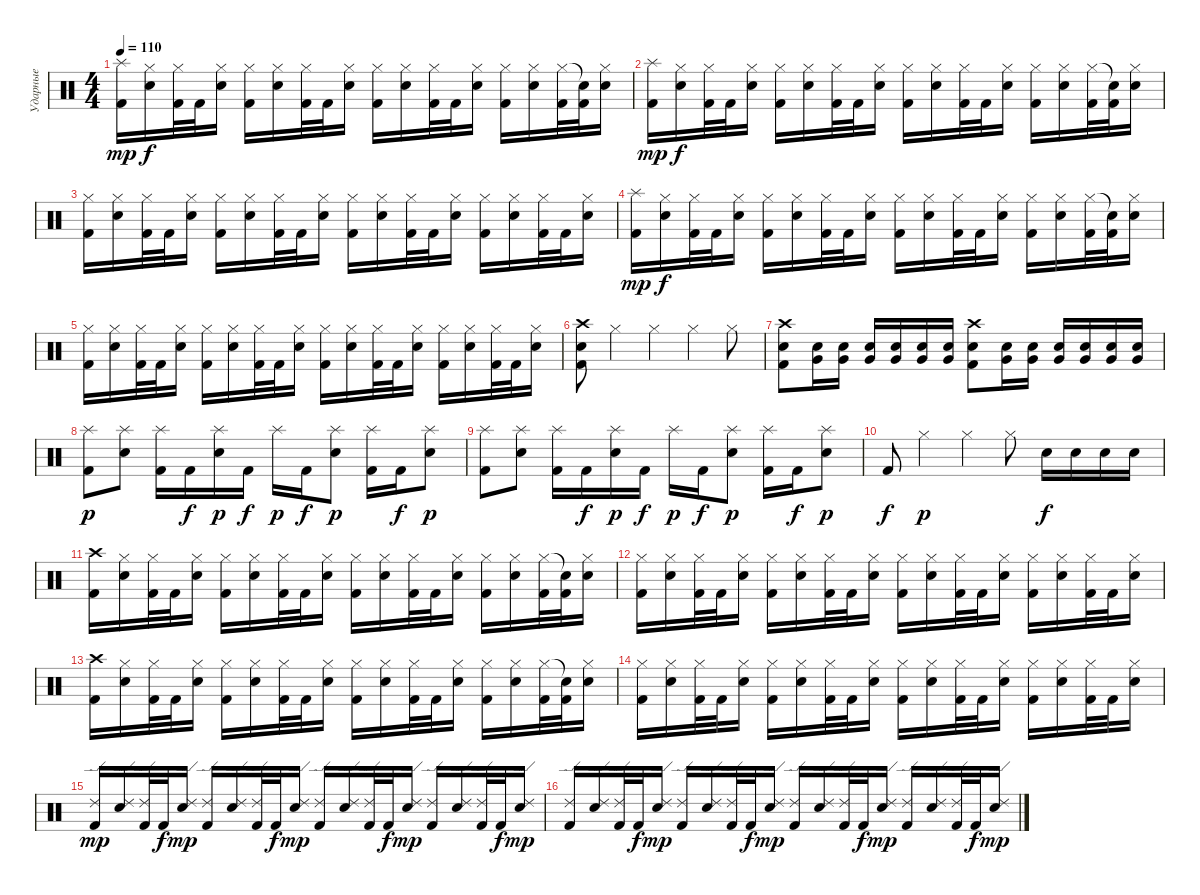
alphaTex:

\track ("Ударные" "Ударные") {instrument percussion}
\staff {score}
\articulation defaults
\ts (4 4)
\tempo 110
\clef neutral
\ks c
("Splash (hit)" "Kick (hit) 2").16{dy mp} ("Hi-Hat (closed)" "Electric Snare (hit)").16{dy f} ("Hi-Hat (closed)" "Kick (hit) 2").32 "Kick (hit) 2".32 ("Hi-Hat (closed)" "Electric Snare (hit)").16 ("Hi-Hat (closed)" "Kick (hit) 2").16 ("Hi-Hat (closed)" "Electric Snare (hit)").16 ("Hi-Hat (closed)" "Kick (hit) 2").32 "Kick (hit) 2".32 ("Hi-Hat (closed)" "Electric Snare (hit)").16 ("Hi-Hat (closed)" "Kick (hit) 2").16 ("Hi-Hat (closed)" "Electric Snare (hit)").16 ("Hi-Hat (closed)" "Kick (hit) 2").32 "Kick (hit) 2".32 ("Hi-Hat (closed)" "Electric Snare (hit)").16 ("Hi-Hat (closed)" "Kick (hit) 2").16 ("Hi-Hat (closed)" "Electric Snare (hit)").16 ("Hi-Hat (closed)" "Kick (hit) 2").32 ("Snare (hit)"{t} "Kick (hit) 2").32 ("Hi-Hat (closed)" "Electric Snare (hit)").16 |
("Splash (hit)" "Kick (hit) 2").16{dy mp} ("Hi-Hat (closed)" "Electric Snare (hit)").16{dy f} ("Hi-Hat (closed)" "Kick (hit) 2").32 "Kick (hit) 2".32 ("Hi-Hat (closed)" "Electric Snare (hit)").16 ("Hi-Hat (closed)" "Kick (hit) 2").16 ("Hi-Hat (closed)" "Electric Snare (hit)").16 ("Hi-Hat (closed)" "Kick (hit) 2").32 "Kick (hit) 2".32 ("Hi-Hat (closed)" "Electric Snare (hit)").16 ("Hi-Hat (closed)" "Kick (hit) 2").16 ("Hi-Hat (closed)" "Electric Snare (hit)").16 ("Hi-Hat (closed)" "Kick (hit) 2").32 "Kick (hit) 2".32 ("Hi-Hat (closed)" "Electric Snare (hit)").16 ("Hi-Hat (closed)" "Kick (hit) 2").16 ("Hi-Hat (closed)" "Electric Snare (hit)").16 ("Hi-Hat (closed)" "Kick (hit) 2").32 ("Snare (hit)"{t} "Kick (hit) 2").32 ("Hi-Hat (closed)" "Electric Snare (hit)").16 |
("Hi-Hat (closed)" "Kick (hit) 2").16 ("Hi-Hat (closed)" "Electric Snare (hit)").16 ("Hi-Hat (closed)" "Kick (hit) 2").32 "Kick (hit) 2".32 ("Hi-Hat (closed)" "Electric Snare (hit)").16 ("Hi-Hat (closed)" "Kick (hit) 2").16 ("Hi-Hat (closed)" "Electric Snare (hit)").16 ("Hi-Hat (closed)" "Kick (hit) 2").32 "Kick (hit) 2".32 ("Hi-Hat (closed)" "Electric Snare (hit)").16 ("Hi-Hat (closed)" "Kick (hit) 2").16 ("Hi-Hat (closed)" "Electric Snare (hit)").16 ("Hi-Hat (closed)" "Kick (hit) 2").32 "Kick (hit) 2".32 ("Hi-Hat (closed)" "Electric Snare (hit)").16 ("Hi-Hat (closed)" "Kick (hit) 2").16 ("Hi-Hat (closed)" "Electric Snare (hit)").16 ("Hi-Hat (closed)" "Kick (hit) 2").32 "Kick (hit) 2".32 ("Hi-Hat (closed)" "Electric Snare (hit)").16 |
("Splash (hit)" "Kick (hit) 2").16{dy mp} ("Hi-Hat (closed)" "Electric Snare (hit)").16{dy f} ("Hi-Hat (closed)" "Kick (hit) 2").32 "Kick (hit) 2".32 ("Hi-Hat (closed)" "Electric Snare (hit)").16 ("Hi-Hat (closed)" "Kick (hit) 2").16 ("Hi-Hat (closed)" "Electric Snare (hit)").16 ("Hi-Hat (closed)" "Kick (hit) 2").32 "Kick (hit) 2".32 ("Hi-Hat (closed)" "Electric Snare (hit)").16 ("Hi-Hat (closed)" "Kick (hit) 2").16 ("Hi-Hat (closed)" "Electric Snare (hit)").16 ("Hi-Hat (closed)" "Kick (hit) 2").32 "Kick (hit) 2".32 ("Hi-Hat (closed)" "Electric Snare (hit)").16 ("Hi-Hat (closed)" "Kick (hit) 2").16 ("Hi-Hat (closed)" "Electric Snare (hit)").16 ("Hi-Hat (closed)" "Kick (hit) 2").32 ("Snare (hit)"{t} "Kick (hit) 2").32 ("Hi-Hat (closed)" "Electric Snare (hit)").16 |
("Hi-Hat (closed)" "Kick (hit) 2").16 ("Hi-Hat (closed)" "Electric Snare (hit)").16 ("Hi-Hat (closed)" "Kick (hit) 2").32 "Kick (hit) 2".32 ("Hi-Hat (closed)" "Electric Snare (hit)").16 ("Hi-Hat (closed)" "Kick (hit) 2").16 ("Hi-Hat (closed)" "Electric Snare (hit)").16 ("Hi-Hat (closed)" "Kick (hit) 2").32 "Kick (hit) 2".32 ("Hi-Hat (closed)" "Electric Snare (hit)").16 ("Hi-Hat (closed)" "Kick (hit) 2").16 ("Hi-Hat (closed)" "Electric Snare (hit)").16 ("Hi-Hat (closed)" "Kick (hit) 2").32 "Kick (hit) 2".32 ("Hi-Hat (closed)" "Electric Snare (hit)").16 ("Hi-Hat (closed)" "Kick (hit) 2").16 ("Hi-Hat (closed)" "Electric Snare (hit)").16 ("Hi-Hat (closed)" "Kick (hit) 2").32 "Kick (hit) 2".32 ("Hi-Hat (closed)" "Electric Snare (hit)").16 |
("Crash high (hit)" "Electric Snare (hit)" "Kick (hit) 2").8 "Hi-Hat (closed)".4 "Hi-Hat (closed)".4 "Hi-Hat (closed)".4 "Hi-Hat (closed)".8 |
("Crash high (hit)" "Electric Snare (hit)" "Kick (hit) 2").8 ("Electric Snare (hit)" "Very Low Tom (hit)").16 ("Electric Snare (hit)" "Very Low Tom (hit)").16 ("Electric Snare (hit)" "Very Low Tom (hit)").16 ("Electric Snare (hit)" "Very Low Tom (hit)").16 ("Electric Snare (hit)" "Very Low Tom (hit)").16 ("Electric Snare (hit)" "Very Low Tom (hit)").16 ("Crash high (hit)" "Electric Snare (hit)" "Kick (hit) 2").8 ("Electric Snare (hit)" "Very Low Tom (hit)").16 ("Electric Snare (hit)" "Very Low Tom (hit)").16 ("Electric Snare (hit)" "Very Low Tom (hit)").16 ("Electric Snare (hit)" "Very Low Tom (hit)").16 ("Electric Snare (hit)" "Very Low Tom (hit)").16 ("Electric Snare (hit)" "Very Low Tom (hit)").16 |
("Splash (hit)" "Kick (hit) 2").8{dy p} ("Splash (hit)" "Electric Snare (hit)").8 ("Splash (hit)" "Kick (hit) 2").16 "Kick (hit) 2".16{dy f} ("Splash (hit)" "Electric Snare (hit)").16{dy p} "Kick (hit) 2".16{dy f} "Splash (hit)".16{dy p} "Kick (hit) 2".16{dy f} ("Splash (hit)" "Electric Snare (hit)").8{dy p} ("Splash (hit)" "Kick (hit) 2").16 "Kick (hit) 2".16{dy f} ("Splash (hit)" "Electric Snare (hit)").8{dy p} |
("Splash (hit)" "Kick (hit) 2").8 ("Splash (hit)" "Electric Snare (hit)").8 ("Splash (hit)" "Kick (hit) 2").16 "Kick (hit) 2".16{dy f} ("Splash (hit)" "Electric Snare (hit)").16{dy p} "Kick (hit) 2".16{dy f} "Splash (hit)".16{dy p} "Kick (hit) 2".16{dy f} ("Splash (hit)" "Electric Snare (hit)").8{dy p} ("Splash (hit)" "Kick (hit) 2").16 "Kick (hit) 2".16{dy f} ("Splash (hit)" "Electric Snare (hit)").8{dy p} |
"Kick (hit) 2".8{dy f} "Hi-Hat (closed)".4{dy p} "Hi-Hat (closed)".4 "Hi-Hat (closed)".8 "Electric Snare (hit)".16{dy f} "Electric Snare (hit)".16 "Electric Snare (hit)".16 "Electric Snare (hit)".16 |
("Crash high (hit)" "Kick (hit) 2").16 ("Hi-Hat (closed)" "Electric Snare (hit)").16 ("Hi-Hat (closed)" "Kick (hit) 2").32 "Kick (hit) 2".32 ("Hi-Hat (closed)" "Electric Snare (hit)").16 ("Hi-Hat (closed)" "Kick (hit) 2").16 ("Hi-Hat (closed)" "Electric Snare (hit)").16 ("Hi-Hat (closed)" "Kick (hit) 2").32 "Kick (hit) 2".32 ("Hi-Hat (closed)" "Electric Snare (hit)").16 ("Hi-Hat (closed)" "Kick (hit) 2").16 ("Hi-Hat (closed)" "Electric Snare (hit)").16 ("Hi-Hat (closed)" "Kick (hit) 2").32 "Kick (hit) 2".32 ("Hi-Hat (closed)" "Electric Snare (hit)").16 ("Hi-Hat (closed)" "Kick (hit) 2").16 ("Hi-Hat (closed)" "Electric Snare (hit)").16 ("Hi-Hat (closed)" "Kick (hit) 2").32 ("Snare (hit)"{t} "Kick (hit) 2").32 ("Hi-Hat (closed)" "Electric Snare (hit)").16 |
("Hi-Hat (closed)" "Kick (hit) 2").16 ("Hi-Hat (closed)" "Electric Snare (hit)").16 ("Hi-Hat (closed)" "Kick (hit) 2").32 "Kick (hit) 2".32 ("Hi-Hat (closed)" "Electric Snare (hit)").16 ("Hi-Hat (closed)" "Kick (hit) 2").16 ("Hi-Hat (closed)" "Electric Snare (hit)").16 ("Hi-Hat (closed)" "Kick (hit) 2").32 "Kick (hit) 2".32 ("Hi-Hat (closed)" "Electric Snare (hit)").16 ("Hi-Hat (closed)" "Kick (hit) 2").16 ("Hi-Hat (closed)" "Electric Snare (hit)").16 ("Hi-Hat (closed)" "Kick (hit) 2").32 "Kick (hit) 2".32 ("Hi-Hat (closed)" "Electric Snare (hit)").16 ("Hi-Hat (closed)" "Kick (hit) 2").16 ("Hi-Hat (closed)" "Electric Snare (hit)").16 ("Hi-Hat (closed)" "Kick (hit) 2").32 "Kick (hit) 2".32 ("Hi-Hat (closed)" "Electric Snare (hit)").16 |
("Crash high (hit)" "Kick (hit) 2").16 ("Hi-Hat (closed)" "Electric Snare (hit)").16 ("Hi-Hat (closed)" "Kick (hit) 2").32 "Kick (hit) 2".32 ("Hi-Hat (closed)" "Electric Snare (hit)").16 ("Hi-Hat (closed)" "Kick (hit) 2").16 ("Hi-Hat (closed)" "Electric Snare (hit)").16 ("Hi-Hat (closed)" "Kick (hit) 2").32 "Kick (hit) 2".32 ("Hi-Hat (closed)" "Electric Snare (hit)").16 ("Hi-Hat (closed)" "Kick (hit) 2").16 ("Hi-Hat (closed)" "Electric Snare (hit)").16 ("Hi-Hat (closed)" "Kick (hit) 2").32 "Kick (hit) 2".32 ("Hi-Hat (closed)" "Electric Snare (hit)").16 ("Hi-Hat (closed)" "Kick (hit) 2").16 ("Hi-Hat (closed)" "Electric Snare (hit)").16 ("Hi-Hat (closed)" "Kick (hit) 2").32 ("Snare (hit)"{t} "Kick (hit) 2").32 ("Hi-Hat (closed)" "Electric Snare (hit)").16 |
("Hi-Hat (closed)" "Kick (hit) 2").16 ("Hi-Hat (closed)" "Electric Snare (hit)").16 ("Hi-Hat (closed)" "Kick (hit) 2").32 "Kick (hit) 2".32 ("Hi-Hat (closed)" "Electric Snare (hit)").16 ("Hi-Hat (closed)" "Kick (hit) 2").16 ("Hi-Hat (closed)" "Electric Snare (hit)").16 ("Hi-Hat (closed)" "Kick (hit) 2").32 "Kick (hit) 2".32 ("Hi-Hat (closed)" "Electric Snare (hit)").16 ("Hi-Hat (closed)" "Kick (hit) 2").16 ("Hi-Hat (closed)" "Electric Snare (hit)").16 ("Hi-Hat (closed)" "Kick (hit) 2").32 "Kick (hit) 2".32 ("Hi-Hat (closed)" "Electric Snare (hit)").16 ("Hi-Hat (closed)" "Kick (hit) 2").16 ("Hi-Hat (closed)" "Electric Snare (hit)").16 ("Hi-Hat (closed)" "Kick (hit) 2").32 "Kick (hit) 2".32 ("Hi-Hat (closed)" "Electric Snare (hit)").16 |
("Ride (edge) 2" "Kick (hit) 2").16{dy mp} ("Ride (edge) 2" "Electric Snare (hit)").16 ("Ride (edge) 2" "Kick (hit) 2").32 "Kick (hit) 2".32{dy f} ("Ride (edge) 2" "Electric Snare (hit)").16{dy mp} ("Ride (edge) 2" "Kick (hit) 2").16 ("Ride (edge) 2" "Electric Snare (hit)").16 ("Ride (edge) 2" "Kick (hit) 2").32 "Kick (hit) 2".32{dy f} ("Ride (edge) 2" "Electric Snare (hit)").16{dy mp} ("Ride (edge) 2" "Kick (hit) 2").16 ("Ride (edge) 2" "Electric Snare (hit)").16 ("Ride (edge) 2" "Kick (hit) 2").32 "Kick (hit) 2".32{dy f} ("Ride (edge) 2" "Electric Snare (hit)").16{dy mp} ("Ride (edge) 2" "Kick (hit) 2").16 ("Ride (edge) 2" "Electric Snare (hit)").16 ("Ride (edge) 2" "Kick (hit) 2").32 "Kick (hit) 2".32{dy f} ("Ride (edge) 2" "Electric Snare (hit)").16{dy mp} |
("Ride (edge) 2" "Kick (hit) 2").16 ("Ride (edge) 2" "Electric Snare (hit)").16 ("Ride (edge) 2" "Kick (hit) 2").32 "Kick (hit) 2".32{dy f} ("Ride (edge) 2" "Electric Snare (hit)").16{dy mp} ("Ride (edge) 2" "Kick (hit) 2").16 ("Ride (edge) 2" "Electric Snare (hit)").16 ("Ride (edge) 2" "Kick (hit) 2").32 "Kick (hit) 2".32{dy f} ("Ride (edge) 2" "Electric Snare (hit)").16{dy mp} ("Ride (edge) 2" "Kick (hit) 2").16 ("Ride (edge) 2" "Electric Snare (hit)").16 ("Ride (edge) 2" "Kick (hit) 2").32 "Kick (hit) 2".32{dy f} ("Ride (edge) 2" "Electric Snare (hit)").16{dy mp} ("Ride (edge) 2" "Kick (hit) 2").16 ("Ride (edge) 2" "Electric Snare (hit)").16 ("Ride (edge) 2" "Kick (hit) 2").32 "Kick (hit) 2".32{dy f} ("Ride (edge) 2" "Electric Snare (hit)").16{dy mp}
